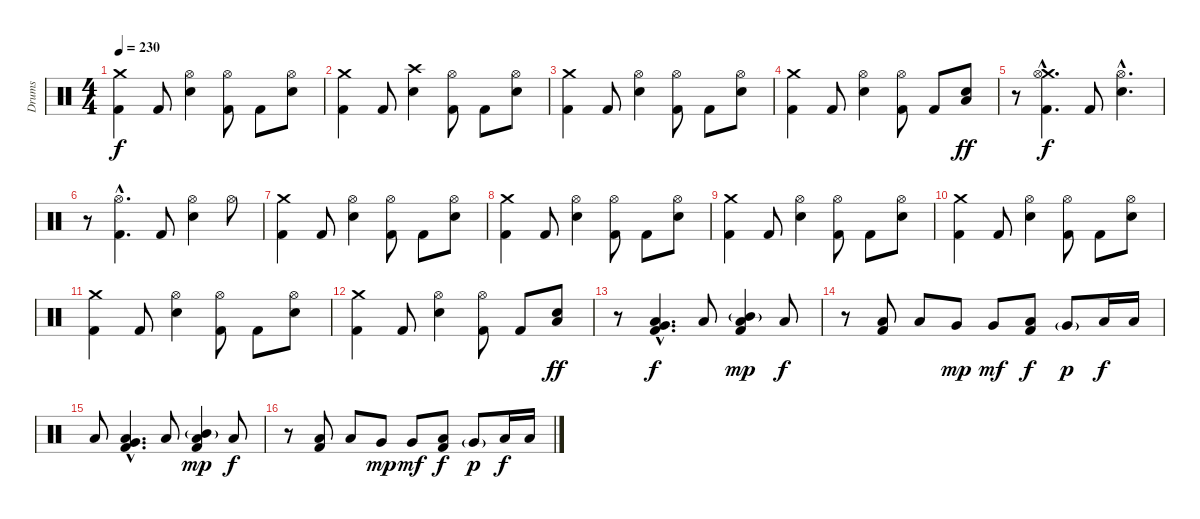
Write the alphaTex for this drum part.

\track ("Drums" "Drums") {instrument percussion}
\staff {score}
\articulation defaults
\ts (4 4)
\tempo 230
\clef neutral
\ks c
("Crash medium (hit)" "Kick (hit) 2").4{dy f} "Kick (hit) 2".8 ("Hi-Hat (open)" "Electric Snare (hit)").4 ("Hi-Hat (open)" "Kick (hit) 2").8 "Kick (hit) 2".8 ("Hi-Hat (open)" "Electric Snare (hit)").8 |
("Crash medium (hit)" "Kick (hit) 2").4 "Kick (hit) 2".8 ("Crash high (hit)" "Electric Snare (hit)").4 ("Hi-Hat (open)" "Kick (hit) 2").8 "Kick (hit) 2".8 ("Hi-Hat (open)" "Electric Snare (hit)").8 |
("Crash medium (hit)" "Kick (hit) 2").4 "Kick (hit) 2".8 ("Hi-Hat (open)" "Electric Snare (hit)").4 ("Hi-Hat (open)" "Kick (hit) 2").8 "Kick (hit) 2".8 ("Hi-Hat (open)" "Electric Snare (hit)").8 |
("Crash medium (hit)" "Kick (hit) 2").4 "Kick (hit) 2".8 ("Hi-Hat (open)" "Electric Snare (hit)").4 ("Hi-Hat (open)" "Kick (hit) 2").8 "Kick (hit) 2".8 ("Low Floor Tom (hit)" "Electric Snare (hit)").8{dy ff} |
r.8 ("Crash medium (hit)"{hac} "Hi-Hat (open)"{hac} "Kick (hit) 2"{hac}).4{d dy f} "Kick (hit) 2".8 ("Hi-Hat (open)"{hac} "Electric Snare (hit)"{hac}).4{d} |
r.8 ("Hi-Hat (open)"{hac} "Kick (hit) 2"{hac}).4{d} "Kick (hit) 2".8 ("Hi-Hat (open)" "Electric Snare (hit)").4 "Hi-Hat (open)".8 |
("Crash medium (hit)" "Kick (hit) 2").4 "Kick (hit) 2".8 ("Hi-Hat (open)" "Electric Snare (hit)").4 ("Hi-Hat (open)" "Kick (hit) 2").8 "Kick (hit) 2".8 ("Hi-Hat (open)" "Electric Snare (hit)").8 |
("Crash medium (hit)" "Kick (hit) 2").4 "Kick (hit) 2".8 ("Hi-Hat (open)" "Electric Snare (hit)").4 ("Hi-Hat (open)" "Kick (hit) 2").8 "Kick (hit) 2".8 ("Hi-Hat (open)" "Electric Snare (hit)").8 |
("Crash medium (hit)" "Kick (hit) 2").4 "Kick (hit) 2".8 ("Hi-Hat (open)" "Electric Snare (hit)").4 ("Hi-Hat (open)" "Kick (hit) 2").8 "Kick (hit) 2".8 ("Hi-Hat (open)" "Electric Snare (hit)").8 |
("Crash medium (hit)" "Kick (hit) 2").4 "Kick (hit) 2".8 ("Hi-Hat (open)" "Electric Snare (hit)").4 ("Hi-Hat (open)" "Kick (hit) 2").8 "Kick (hit) 2".8 ("Hi-Hat (open)" "Electric Snare (hit)").8 |
("Crash medium (hit)" "Kick (hit) 2").4 "Kick (hit) 2".8 ("Hi-Hat (open)" "Electric Snare (hit)").4 ("Hi-Hat (open)" "Kick (hit) 2").8 "Kick (hit) 2".8 ("Hi-Hat (open)" "Electric Snare (hit)").8 |
("Crash medium (hit)" "Kick (hit) 2").4 "Kick (hit) 2".8 ("Hi-Hat (open)" "Electric Snare (hit)").4 ("Hi-Hat (open)" "Kick (hit) 2").8 "Kick (hit) 2".8 ("Low Floor Tom (hit)" "Electric Snare (hit)").8{dy ff} |
r.8 ("Very Low Tom (hit)"{hac} "Low Floor Tom (hit)"{hac} "Kick (hit) 2"{hac}).4{d dy f} "Low Tom (hit)".8 ("Mid Tom (hit)"{g} "Low Tom (hit)" "Kick (hit) 2").4{dy mp} "Low Tom (hit)".8{dy f} |
r.8 ("Low Tom (hit)" "Kick (hit) 2").8 "Low Tom (hit)".8 "Very Low Tom (hit)".8{dy mp} "Very Low Tom (hit)".8{dy mf} ("Low Tom (hit)" "Kick (hit) 2").8{dy f} "Very Low Tom (hit)"{g}.8{dy p} "Low Floor Tom (hit)".16{dy f} "Low Floor Tom (hit)".16 |
"Low Floor Tom (hit)".8 ("Very Low Tom (hit)"{hac} "Low Floor Tom (hit)"{hac} "Kick (hit) 2"{hac}).4{d} "Low Tom (hit)".8 ("Mid Tom (hit)"{g} "Low Tom (hit)" "Kick (hit) 2").4{dy mp} "Low Tom (hit)".8{dy f} |
r.8 ("Low Tom (hit)" "Kick (hit) 2").8 "Low Tom (hit)".8 "Very Low Tom (hit)".8{dy mp} "Very Low Tom (hit)".8{dy mf} ("Low Tom (hit)" "Kick (hit) 2").8{dy f} "Very Low Tom (hit)"{g}.8{dy p} "Low Floor Tom (hit)".16{dy f} "Low Floor Tom (hit)".16
